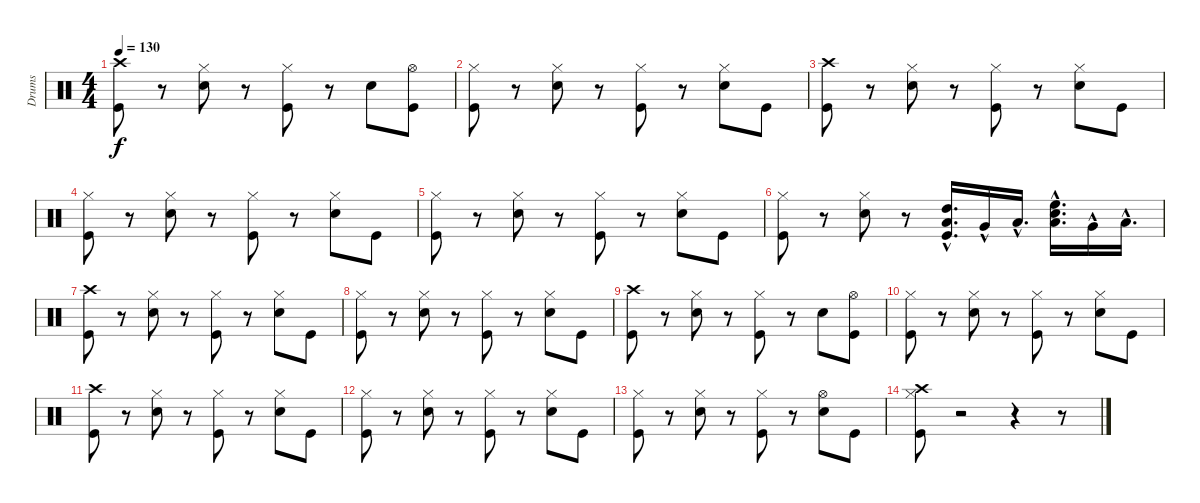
\track ("Drums" "Drums") {instrument percussion}
\staff {score}
\articulation defaults
\ts (4 4)
\tempo 130
\clef neutral
\ks c
("Crash high (hit)" "Kick (hit)").8{dy f} r.8 ("Hi-Hat (closed)" "Snare (hit) 2").8 r.8 ("Hi-Hat (closed)" "Kick (hit)").8 r.8 "Snare (hit) 2".8 ("Hi-Hat (open)" "Kick (hit)").8 |
("Hi-Hat (closed)" "Kick (hit)").8 r.8 ("Hi-Hat (closed)" "Snare (hit) 2").8 r.8 ("Hi-Hat (closed)" "Kick (hit)").8 r.8 ("Hi-Hat (closed)" "Snare (hit) 2").8 "Kick (hit)".8 |
("Crash high (hit)" "Kick (hit)").8 r.8 ("Hi-Hat (closed)" "Snare (hit) 2").8 r.8 ("Hi-Hat (closed)" "Kick (hit)").8 r.8 ("Hi-Hat (closed)" "Snare (hit) 2").8 "Kick (hit)".8 |
("Hi-Hat (closed)" "Kick (hit)").8 r.8 ("Hi-Hat (closed)" "Snare (hit) 2").8 r.8 ("Hi-Hat (closed)" "Kick (hit)").8 r.8 ("Hi-Hat (closed)" "Snare (hit) 2").8 "Kick (hit)".8 |
("Hi-Hat (closed)" "Kick (hit)").8 r.8 ("Hi-Hat (closed)" "Snare (hit) 2").8 r.8 ("Hi-Hat (closed)" "Kick (hit)").8 r.8 ("Hi-Hat (closed)" "Snare (hit) 2").8 "Kick (hit)".8 |
("Hi-Hat (closed)" "Kick (hit)").8 r.8 ("Hi-Hat (closed)" "Snare (hit) 2").8 r.8 ("High Tom (hit)"{hac} "Low Tom (hit)" "Kick (hit)").16{d} "Very Low Tom (hit)"{hac}.16 "Low Floor Tom (hit)"{hac}.16{d} ("High Floor Tom (hit)"{hac} "Low Floor Tom (hit)" "Snare (hit) 2").16{d} "Very Low Tom (hit)"{hac}.16 "Low Tom (hit)"{hac}.16{d} |
("Crash high (hit)" "Kick (hit)").8 r.8 ("Hi-Hat (closed)" "Snare (hit) 2").8 r.8 ("Hi-Hat (closed)" "Kick (hit)").8 r.8 ("Hi-Hat (closed)" "Snare (hit) 2").8 "Kick (hit)".8 |
("Hi-Hat (closed)" "Kick (hit)").8 r.8 ("Hi-Hat (closed)" "Snare (hit) 2").8 r.8 ("Hi-Hat (closed)" "Kick (hit)").8 r.8 ("Hi-Hat (closed)" "Snare (hit) 2").8 "Kick (hit)".8 |
("Crash high (hit)" "Kick (hit)").8 r.8 ("Hi-Hat (closed)" "Snare (hit) 2").8 r.8 ("Hi-Hat (closed)" "Kick (hit)").8 r.8 "Snare (hit) 2".8 ("Hi-Hat (open)" "Kick (hit)").8 |
("Hi-Hat (closed)" "Kick (hit)").8 r.8 ("Hi-Hat (closed)" "Snare (hit) 2").8 r.8 ("Hi-Hat (closed)" "Kick (hit)").8 r.8 ("Hi-Hat (closed)" "Snare (hit) 2").8 "Kick (hit)".8 |
("Crash high (hit)" "Kick (hit)").8{volume 16} r.8 ("Hi-Hat (closed)" "Snare (hit) 2").8{volume 15} r.8 ("Hi-Hat (closed)" "Kick (hit)").8{volume 14} r.8 ("Hi-Hat (closed)" "Snare (hit) 2").8{volume 13} "Kick (hit)".8{volume 12} |
("Hi-Hat (closed)" "Kick (hit)").8{volume 12} r.8 ("Hi-Hat (closed)" "Snare (hit) 2").8{volume 11} r.8 ("Hi-Hat (closed)" "Kick (hit)").8{volume 10} r.8 ("Hi-Hat (closed)" "Snare (hit) 2").8{volume 9} "Kick (hit)".8{volume 8} |
("Hi-Hat (closed)" "Kick (hit)").8{volume 8} r.8 ("Hi-Hat (closed)" "Snare (hit) 2").8{volume 7} r.8 ("Hi-Hat (closed)" "Kick (hit)").8{volume 6} r.8 ("Hi-Hat (open)" "Snare (hit) 2").8{volume 5} "Kick (hit)".8{volume 4} |
("Crash high (hit)" "Hi-Hat (closed)" "Kick (hit)").8{volume 4} r.2 r.4 r.8
